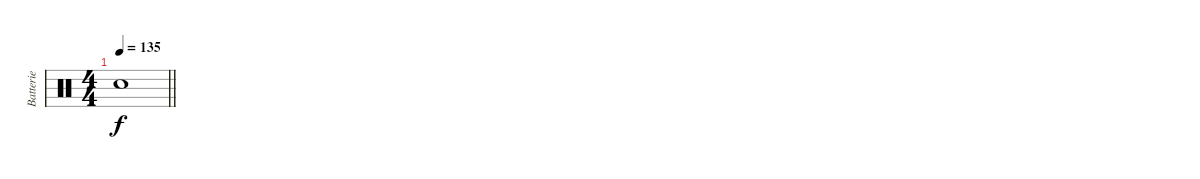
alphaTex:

\track ("Batterie" "Batterie") {instrument percussion}
\staff {score}
\articulation defaults
\ts (4 4)
\tempo 135
\clef neutral
\barLineRight lightlight
\ks c "Snare (hit)"{t}.1{dy f}
